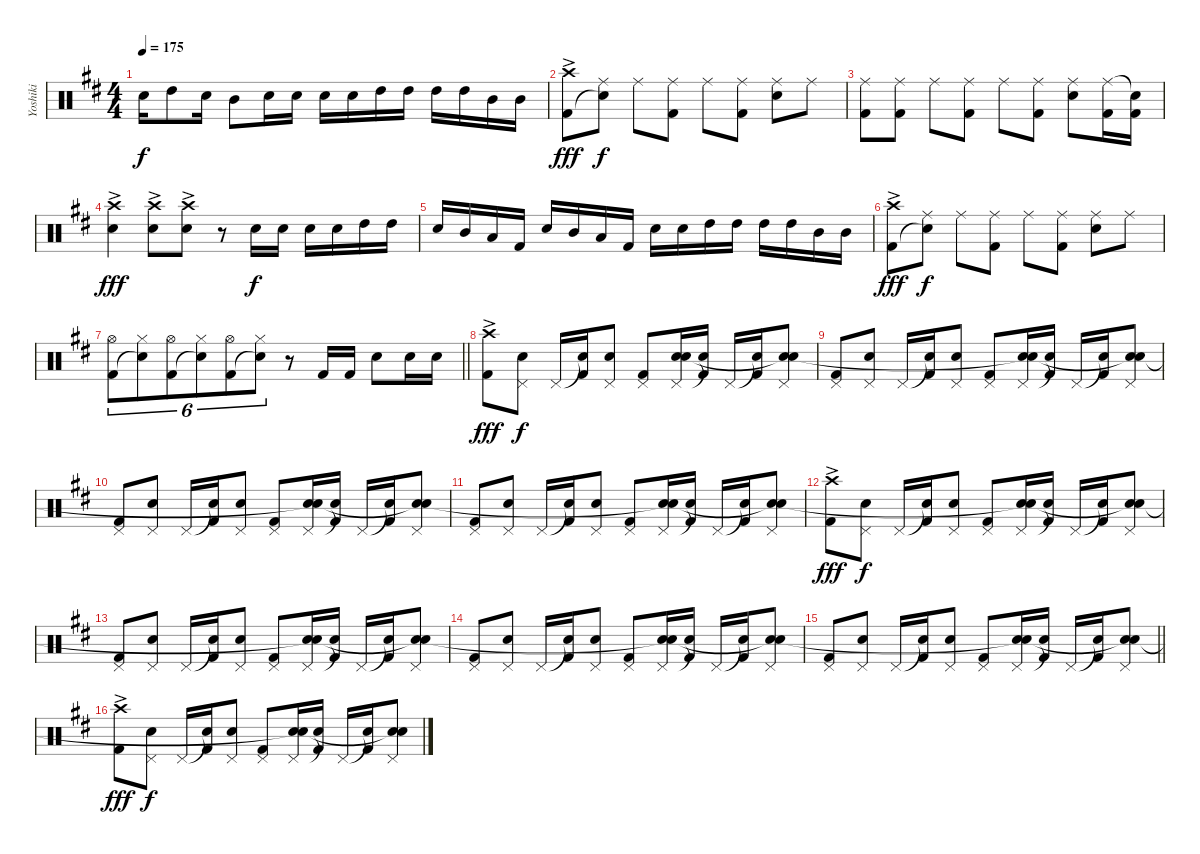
\track ("Yoshiki" "Yoshiki") {instrument percussion}
\staff {score}
\articulation defaults
\ts (4 4)
\tempo 175
\clef neutral
\ks d "Snare (hit) 2".16{dy f} "High Tom (hit)".8 "Snare (hit) 2".16 "Mid Tom (hit)".8 "Snare (hit) 2".16 "Snare (hit) 2".16 "Snare (hit) 2".16 "Snare (hit) 2".16 "High Tom (hit)".16 "High Tom (hit)".16 "High Tom (hit)".16 "High Tom (hit)".16 "Mid Tom (hit)".16 "Mid Tom (hit)".16
|
("Crash high (hit)"{ac} "Kick (hit) 2"{ac}).8{dy fff} ("Ride (middle)" "Snare (hit)"{t}).8{dy f} "Ride (middle)".8 ("Ride (middle)" "Kick (hit) 2").8 "Ride (middle)".8 ("Ride (middle)" "Kick (hit) 2").8 ("Ride (middle)" "Snare (hit) 2").8 "Ride (middle)".8 |
("Ride (middle)" "Kick (hit) 2").8 ("Ride (middle)" "Kick (hit) 2").8 "Ride (middle)".8 ("Ride (middle)" "Kick (hit) 2").8 "Ride (middle)".8 ("Ride (middle)" "Kick (hit) 2").8 ("Ride (middle)" "Snare (hit) 2").8 ("Ride (middle)" "Kick (hit) 2").16 ("Snare (hit)"{t} "Kick (hit) 2").16 |
("Crash high (hit)"{ac} "Snare (hit) 2"{ac}).4{dy fff} ("Crash high (hit)"{ac} "Snare (hit) 2"{ac}).8 ("Crash high (hit)"{ac} "Snare (hit) 2"{ac}).8 r.8 "Snare (hit) 2".16{dy f} "Snare (hit) 2".16 "Snare (hit) 2".16 "Snare (hit) 2".16 "High Tom (hit)".16 "High Tom (hit)".16 |
"Snare (hit) 2".16 "Mid Tom (hit)".16 "Low Tom (hit)".16 "Kick (hit) 2".16 "Snare (hit) 2".16 "Mid Tom (hit)".16 "Low Tom (hit)".16 "Kick (hit) 2".16 "Snare (hit) 2".16 "Snare (hit) 2".16 "High Tom (hit)".16 "High Tom (hit)".16 "High Tom (hit)".16 "High Tom (hit)".16 "Mid Tom (hit)".16 "Mid Tom (hit)".16 |
("Crash high (hit)"{ac} "Kick (hit) 2"{ac}).8{dy fff} ("Ride (middle)" "Snare (hit)"{t}).8{dy f} "Ride (middle)".8 ("Ride (middle)" "Kick (hit) 2").8 "Ride (middle)".8 ("Ride (middle)" "Kick (hit) 2").8 ("Ride (middle)" "Snare (hit) 2").8 "Ride (middle)".8 |
\barLineRight lightlight
("Hi-Hat (open)" "Kick (hit) 2").8{tu (6 4)} ("Hi-Hat (closed)" "Snare (hit)"{t}).8{tu (6 4)} ("Hi-Hat (open)" "Kick (hit) 2").8{tu (6 4)} ("Hi-Hat (closed)" "Snare (hit)"{t}).8{tu (6 4)} ("Hi-Hat (open)" "Kick (hit) 2").8{tu (6 4)} ("Hi-Hat (closed)" "Snare (hit)"{t}).8{tu (6 4)} r.8 "Kick (hit) 2".16 "Kick (hit) 2".16 "Snare (hit) 2".8 "Snare (hit) 2".16 "Snare (hit) 2".16 |
("Crash high (hit)"{ac} "Kick (hit) 2"{ac}).8{dy fff} ("Pedal Hi-Hat (hit)" "Snare (hit) 2").8{dy f} "Pedal Hi-Hat (hit)".16 ("Snare (hit)"{t} "Kick (hit) 2").16 ("Pedal Hi-Hat (hit)" "Snare (hit) 2").8 ("Pedal Hi-Hat (hit)" "Kick (hit) 2").8 ("Pedal Hi-Hat (hit)" "Snare (hit) 2" "Snare (hit)").16 ("Snare (hit)"{t} "Kick (hit) 2").16 "Pedal Hi-Hat (hit)".16 ("Snare (hit)"{t} "Kick (hit) 2").16 ("Pedal Hi-Hat (hit)" "Snare (hit) 2" "Snare (hit)"{t}).8 |
("Pedal Hi-Hat (hit)" "Kick (hit) 2").8 ("Pedal Hi-Hat (hit)" "Snare (hit) 2").8 "Pedal Hi-Hat (hit)".16 ("Snare (hit)"{t} "Kick (hit) 2").16 ("Pedal Hi-Hat (hit)" "Snare (hit) 2").8 ("Pedal Hi-Hat (hit)" "Kick (hit) 2").8 ("Pedal Hi-Hat (hit)" "Snare (hit) 2" "Snare (hit)"{t}).16 ("Snare (hit)"{t} "Kick (hit) 2").16 "Pedal Hi-Hat (hit)".16 ("Snare (hit)"{t} "Kick (hit) 2").16 ("Pedal Hi-Hat (hit)" "Snare (hit) 2" "Snare (hit)"{t}).8 |
("Pedal Hi-Hat (hit)" "Kick (hit) 2").8 ("Pedal Hi-Hat (hit)" "Snare (hit) 2").8 "Pedal Hi-Hat (hit)".16 ("Snare (hit)"{t} "Kick (hit) 2").16 ("Pedal Hi-Hat (hit)" "Snare (hit) 2").8 ("Pedal Hi-Hat (hit)" "Kick (hit) 2").8 ("Pedal Hi-Hat (hit)" "Snare (hit) 2" "Snare (hit)"{t}).16 ("Snare (hit)"{t} "Kick (hit) 2").16 "Pedal Hi-Hat (hit)".16 ("Snare (hit)"{t} "Kick (hit) 2").16 ("Pedal Hi-Hat (hit)" "Snare (hit) 2" "Snare (hit)"{t}).8 |
("Pedal Hi-Hat (hit)" "Kick (hit) 2").8 ("Pedal Hi-Hat (hit)" "Snare (hit) 2").8 "Pedal Hi-Hat (hit)".16 ("Snare (hit)"{t} "Kick (hit) 2").16 ("Pedal Hi-Hat (hit)" "Snare (hit) 2").8 ("Pedal Hi-Hat (hit)" "Kick (hit) 2").8 ("Pedal Hi-Hat (hit)" "Snare (hit) 2" "Snare (hit)"{t}).16 ("Snare (hit)"{t} "Kick (hit) 2").16 "Pedal Hi-Hat (hit)".16 ("Snare (hit)"{t} "Kick (hit) 2").16 ("Pedal Hi-Hat (hit)" "Snare (hit) 2" "Snare (hit)"{t}).8 |
("Crash high (hit)"{ac} "Kick (hit) 2"{ac}).8{dy fff} ("Pedal Hi-Hat (hit)" "Snare (hit) 2").8{dy f} "Pedal Hi-Hat (hit)".16 ("Snare (hit)"{t} "Kick (hit) 2").16 ("Pedal Hi-Hat (hit)" "Snare (hit) 2").8 ("Pedal Hi-Hat (hit)" "Kick (hit) 2").8 ("Pedal Hi-Hat (hit)" "Snare (hit) 2" "Snare (hit)"{t}).16 ("Snare (hit)"{t} "Kick (hit) 2").16 "Pedal Hi-Hat (hit)".16 ("Snare (hit)"{t} "Kick (hit) 2").16 ("Pedal Hi-Hat (hit)" "Snare (hit) 2" "Snare (hit)"{t}).8 |
("Pedal Hi-Hat (hit)" "Kick (hit) 2").8 ("Pedal Hi-Hat (hit)" "Snare (hit) 2").8 "Pedal Hi-Hat (hit)".16 ("Snare (hit)"{t} "Kick (hit) 2").16 ("Pedal Hi-Hat (hit)" "Snare (hit) 2").8 ("Pedal Hi-Hat (hit)" "Kick (hit) 2").8 ("Pedal Hi-Hat (hit)" "Snare (hit) 2" "Snare (hit)"{t}).16 ("Snare (hit)"{t} "Kick (hit) 2").16 "Pedal Hi-Hat (hit)".16 ("Snare (hit)"{t} "Kick (hit) 2").16 ("Pedal Hi-Hat (hit)" "Snare (hit) 2" "Snare (hit)"{t}).8 |
("Pedal Hi-Hat (hit)" "Kick (hit) 2").8 ("Pedal Hi-Hat (hit)" "Snare (hit) 2").8 "Pedal Hi-Hat (hit)".16 ("Snare (hit)"{t} "Kick (hit) 2").16 ("Pedal Hi-Hat (hit)" "Snare (hit) 2").8 ("Pedal Hi-Hat (hit)" "Kick (hit) 2").8 ("Pedal Hi-Hat (hit)" "Snare (hit) 2" "Snare (hit)"{t}).16 ("Snare (hit)"{t} "Kick (hit) 2").16 "Pedal Hi-Hat (hit)".16 ("Snare (hit)"{t} "Kick (hit) 2").16 ("Pedal Hi-Hat (hit)" "Snare (hit) 2" "Snare (hit)"{t}).8 |
\barLineRight lightlight
("Pedal Hi-Hat (hit)" "Kick (hit) 2").8 ("Pedal Hi-Hat (hit)" "Snare (hit) 2").8 "Pedal Hi-Hat (hit)".16 ("Snare (hit)"{t} "Kick (hit) 2").16 ("Pedal Hi-Hat (hit)" "Snare (hit) 2").8 ("Pedal Hi-Hat (hit)" "Kick (hit) 2").8 ("Pedal Hi-Hat (hit)" "Snare (hit) 2" "Snare (hit)"{t}).16 ("Snare (hit)"{t} "Kick (hit) 2").16 "Pedal Hi-Hat (hit)".16 ("Snare (hit)"{t} "Kick (hit) 2").16 ("Pedal Hi-Hat (hit)" "Snare (hit) 2" "Snare (hit)"{t}).8 |
("Crash high (hit)"{ac} "Kick (hit) 2"{ac}).8{dy fff} ("Pedal Hi-Hat (hit)" "Snare (hit) 2").8{dy f} "Pedal Hi-Hat (hit)".16 ("Snare (hit)"{t} "Kick (hit) 2").16 ("Pedal Hi-Hat (hit)" "Snare (hit) 2").8 ("Pedal Hi-Hat (hit)" "Kick (hit) 2").8 ("Pedal Hi-Hat (hit)" "Snare (hit) 2" "Snare (hit)"{t}).16 ("Snare (hit)"{t} "Kick (hit) 2").16 "Pedal Hi-Hat (hit)".16 ("Snare (hit)"{t} "Kick (hit) 2").16 ("Pedal Hi-Hat (hit)" "Snare (hit) 2" "Snare (hit)"{t}).8
